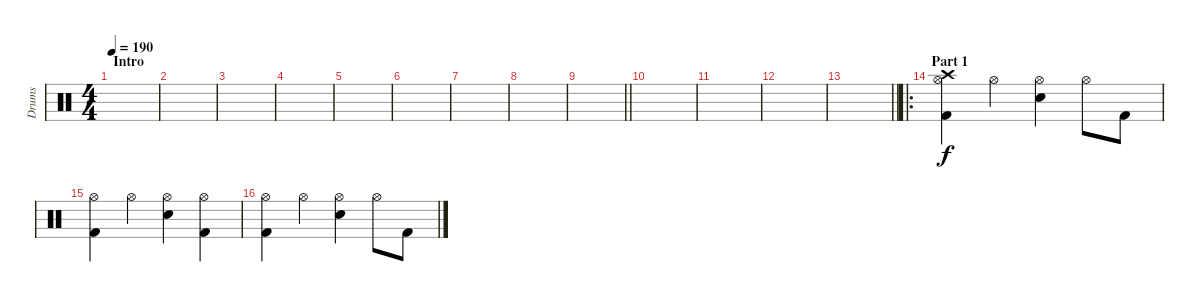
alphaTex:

\track ("Drums" "Drums") {instrument percussion}
\staff {score}
\articulation defaults
\ts (4 4)
\section ("" "Intro")
\tempo 190
\clef neutral
\ks c
|
|
|
|
|
|
|
|
\barLineRight lightlight
|
|
|
|
\barLineRight lightlight
|
\ro
\section ("" "Part 1")
("Crash high (hit)" "Hi-Hat (open)" "Kick (hit) 2").4 "Hi-Hat (open)".4 ("Hi-Hat (open)" "Snare (hit) 2").4 "Hi-Hat (open)".8 "Kick (hit) 2".8 |
("Hi-Hat (open)" "Kick (hit) 2").4 "Hi-Hat (open)".4 ("Hi-Hat (open)" "Snare (hit) 2").4 ("Hi-Hat (open)" "Kick (hit) 2").4 |
("Hi-Hat (open)" "Kick (hit) 2").4 "Hi-Hat (open)".4 ("Hi-Hat (open)" "Snare (hit) 2").4 "Hi-Hat (open)".8 "Kick (hit) 2".8
